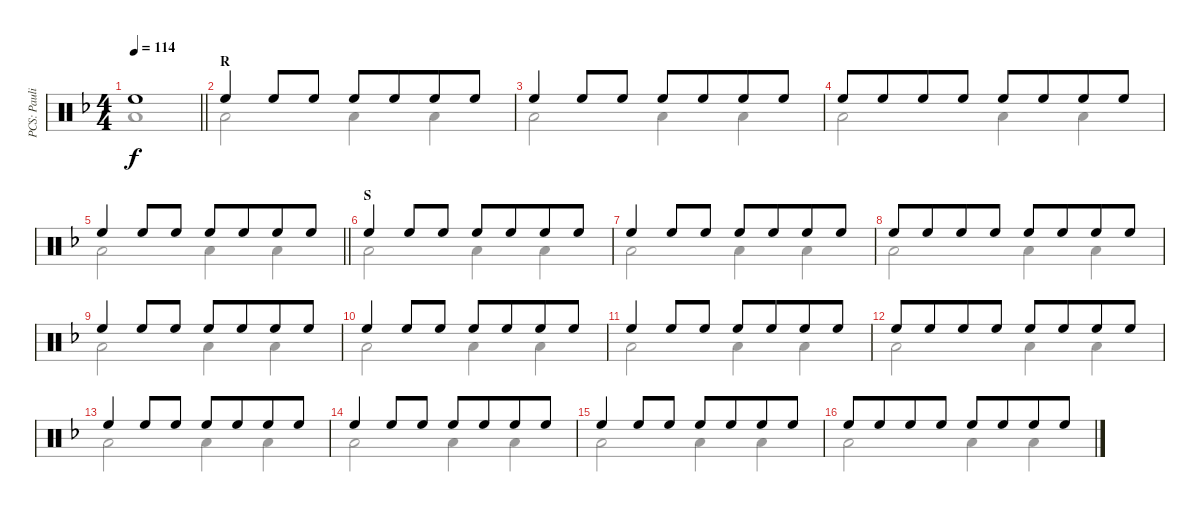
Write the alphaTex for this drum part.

\track ("PCS: Paulinho da Costa" "PCS: Pauli") {instrument percussion}
\staff {score}
\articulation defaults
\voice
\ts (4 4)
\tempo 114
\clef neutral
\barLineRight lightlight
\ks f "High Floor Tom (hit)".1{dy f}
|
\section ("" "R")
"High Floor Tom (hit)".4 "High Floor Tom (hit)".8 "High Floor Tom (hit)".8 "High Floor Tom (hit)".8 "High Floor Tom (hit)".8{beam merge} "High Floor Tom (hit)".8 "High Floor Tom (hit)".8 |
"High Floor Tom (hit)".4 "High Floor Tom (hit)".8 "High Floor Tom (hit)".8 "High Floor Tom (hit)".8 "High Floor Tom (hit)".8{beam merge} "High Floor Tom (hit)".8 "High Floor Tom (hit)".8 |
"High Floor Tom (hit)".8 "High Floor Tom (hit)".8{beam merge} "High Floor Tom (hit)".8 "High Floor Tom (hit)".8 "High Floor Tom (hit)".8{beam merge} "High Floor Tom (hit)".8{beam merge} "High Floor Tom (hit)".8 "High Floor Tom (hit)".8 |
\barLineRight lightlight "High Floor Tom (hit)".4 "High Floor Tom (hit)".8 "High Floor Tom (hit)".8 "High Floor Tom (hit)".8 "High Floor Tom (hit)".8{beam merge} "High Floor Tom (hit)".8 "High Floor Tom (hit)".8
|
\section ("" "S")
"High Floor Tom (hit)".4 "High Floor Tom (hit)".8 "High Floor Tom (hit)".8 "High Floor Tom (hit)".8 "High Floor Tom (hit)".8{beam merge} "High Floor Tom (hit)".8 "High Floor Tom (hit)".8 |
"High Floor Tom (hit)".4 "High Floor Tom (hit)".8 "High Floor Tom (hit)".8 "High Floor Tom (hit)".8 "High Floor Tom (hit)".8{beam merge} "High Floor Tom (hit)".8 "High Floor Tom (hit)".8 |
"High Floor Tom (hit)".8 "High Floor Tom (hit)".8{beam merge} "High Floor Tom (hit)".8 "High Floor Tom (hit)".8 "High Floor Tom (hit)".8{beam merge} "High Floor Tom (hit)".8{beam merge} "High Floor Tom (hit)".8 "High Floor Tom (hit)".8 |
"High Floor Tom (hit)".4 "High Floor Tom (hit)".8 "High Floor Tom (hit)".8 "High Floor Tom (hit)".8 "High Floor Tom (hit)".8{beam merge} "High Floor Tom (hit)".8 "High Floor Tom (hit)".8 |
"High Floor Tom (hit)".4 "High Floor Tom (hit)".8 "High Floor Tom (hit)".8 "High Floor Tom (hit)".8 "High Floor Tom (hit)".8{beam merge} "High Floor Tom (hit)".8 "High Floor Tom (hit)".8 |
"High Floor Tom (hit)".4 "High Floor Tom (hit)".8 "High Floor Tom (hit)".8 "High Floor Tom (hit)".8 "High Floor Tom (hit)".8{beam merge} "High Floor Tom (hit)".8 "High Floor Tom (hit)".8 |
"High Floor Tom (hit)".8 "High Floor Tom (hit)".8{beam merge} "High Floor Tom (hit)".8 "High Floor Tom (hit)".8 "High Floor Tom (hit)".8{beam merge} "High Floor Tom (hit)".8{beam merge} "High Floor Tom (hit)".8 "High Floor Tom (hit)".8 |
"High Floor Tom (hit)".4 "High Floor Tom (hit)".8 "High Floor Tom (hit)".8 "High Floor Tom (hit)".8 "High Floor Tom (hit)".8{beam merge} "High Floor Tom (hit)".8 "High Floor Tom (hit)".8 |
"High Floor Tom (hit)".4 "High Floor Tom (hit)".8 "High Floor Tom (hit)".8 "High Floor Tom (hit)".8 "High Floor Tom (hit)".8{beam merge} "High Floor Tom (hit)".8 "High Floor Tom (hit)".8 |
"High Floor Tom (hit)".4 "High Floor Tom (hit)".8 "High Floor Tom (hit)".8 "High Floor Tom (hit)".8 "High Floor Tom (hit)".8{beam merge} "High Floor Tom (hit)".8 "High Floor Tom (hit)".8 |
"High Floor Tom (hit)".8 "High Floor Tom (hit)".8{beam merge} "High Floor Tom (hit)".8 "High Floor Tom (hit)".8 "High Floor Tom (hit)".8{beam merge} "High Floor Tom (hit)".8{beam merge} "High Floor Tom (hit)".8 "High Floor Tom (hit)".8
\voice
\clef neutral
\ottava regular
\simile none
\barLineRight lightlight
\ks f "Low Floor Tom (hit)".1{dy f}
|
"Low Floor Tom (hit)".2 "Low Floor Tom (hit)".4 "Low Floor Tom (hit)".4 |
"Low Floor Tom (hit)".2 "Low Floor Tom (hit)".4 "Low Floor Tom (hit)".4 |
"Low Floor Tom (hit)".2 "Low Floor Tom (hit)".4 "Low Floor Tom (hit)".4 |
\barLineRight lightlight "Low Floor Tom (hit)".2 "Low Floor Tom (hit)".4 "Low Floor Tom (hit)".4
|
"Low Floor Tom (hit)".2 "Low Floor Tom (hit)".4 "Low Floor Tom (hit)".4 |
"Low Floor Tom (hit)".2 "Low Floor Tom (hit)".4 "Low Floor Tom (hit)".4 |
"Low Floor Tom (hit)".2 "Low Floor Tom (hit)".4 "Low Floor Tom (hit)".4 |
"Low Floor Tom (hit)".2 "Low Floor Tom (hit)".4 "Low Floor Tom (hit)".4 |
"Low Floor Tom (hit)".2 "Low Floor Tom (hit)".4 "Low Floor Tom (hit)".4 |
"Low Floor Tom (hit)".2 "Low Floor Tom (hit)".4 "Low Floor Tom (hit)".4 |
"Low Floor Tom (hit)".2 "Low Floor Tom (hit)".4 "Low Floor Tom (hit)".4 |
"Low Floor Tom (hit)".2 "Low Floor Tom (hit)".4 "Low Floor Tom (hit)".4 |
"Low Floor Tom (hit)".2 "Low Floor Tom (hit)".4 "Low Floor Tom (hit)".4 |
"Low Floor Tom (hit)".2 "Low Floor Tom (hit)".4 "Low Floor Tom (hit)".4 |
"Low Floor Tom (hit)".2 "Low Floor Tom (hit)".4 "Low Floor Tom (hit)".4
